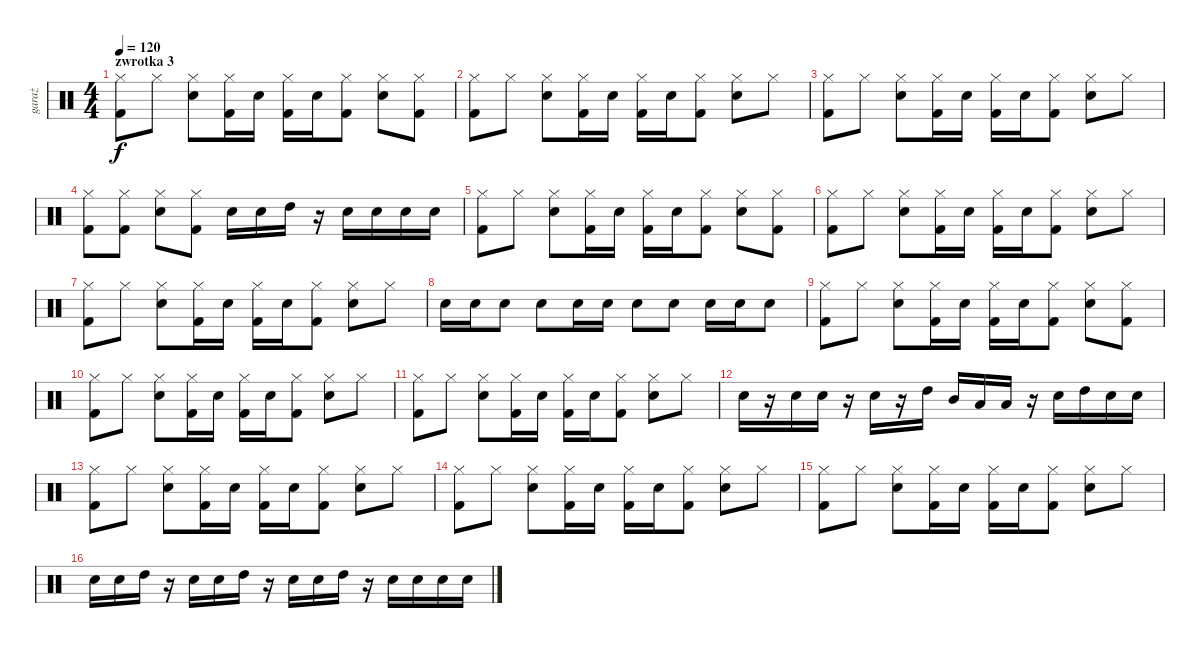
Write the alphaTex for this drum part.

\track ("garaż" "garaż") {instrument percussion}
\staff {score}
\articulation defaults
\ts (4 4)
\section ("" "zwrotka 3")
\tempo 120
\clef neutral
\ks c
("Hi-Hat (closed)" "Kick (hit) 2").8{dy f} "Hi-Hat (closed)".8 ("Hi-Hat (closed)" "Snare (hit) 2").8 ("Hi-Hat (closed)" "Kick (hit) 2").16 "Snare (hit) 2".16 ("Hi-Hat (closed)" "Kick (hit) 2").16 "Snare (hit) 2".16 ("Hi-Hat (closed)" "Kick (hit) 2").8 ("Hi-Hat (closed)" "Snare (hit) 2").8 ("Hi-Hat (closed)" "Kick (hit) 2").8 |
("Hi-Hat (closed)" "Kick (hit) 2").8 "Hi-Hat (closed)".8 ("Hi-Hat (closed)" "Snare (hit) 2").8 ("Hi-Hat (closed)" "Kick (hit) 2").16 "Snare (hit) 2".16 ("Hi-Hat (closed)" "Kick (hit) 2").16 "Snare (hit) 2".16 ("Hi-Hat (closed)" "Kick (hit) 2").8 ("Hi-Hat (closed)" "Snare (hit) 2").8 "Hi-Hat (closed)".8 |
("Hi-Hat (closed)" "Kick (hit) 2").8 "Hi-Hat (closed)".8 ("Hi-Hat (closed)" "Snare (hit) 2").8 ("Hi-Hat (closed)" "Kick (hit) 2").16 "Snare (hit) 2".16 ("Hi-Hat (closed)" "Kick (hit) 2").16 "Snare (hit) 2".16 ("Hi-Hat (closed)" "Kick (hit) 2").8 ("Hi-Hat (closed)" "Snare (hit) 2").8 "Hi-Hat (closed)".8 |
("Hi-Hat (closed)" "Kick (hit) 2").8 ("Hi-Hat (closed)" "Kick (hit) 2").8 ("Hi-Hat (closed)" "Snare (hit) 2").8 ("Hi-Hat (closed)" "Kick (hit) 2").8 "Snare (hit) 2".16 "Snare (hit) 2".16 "High Tom (hit)".16 r.16 "Snare (hit) 2".16 "Snare (hit) 2".16 "Snare (hit) 2".16 "Snare (hit) 2".16 |
("Hi-Hat (closed)" "Kick (hit) 2").8 "Hi-Hat (closed)".8 ("Hi-Hat (closed)" "Snare (hit) 2").8 ("Hi-Hat (closed)" "Kick (hit) 2").16 "Snare (hit) 2".16 ("Hi-Hat (closed)" "Kick (hit) 2").16 "Snare (hit) 2".16 ("Hi-Hat (closed)" "Kick (hit) 2").8 ("Hi-Hat (closed)" "Snare (hit) 2").8 ("Hi-Hat (closed)" "Kick (hit) 2").8 |
("Hi-Hat (closed)" "Kick (hit) 2").8 "Hi-Hat (closed)".8 ("Hi-Hat (closed)" "Snare (hit) 2").8 ("Hi-Hat (closed)" "Kick (hit) 2").16 "Snare (hit) 2".16 ("Hi-Hat (closed)" "Kick (hit) 2").16 "Snare (hit) 2".16 ("Hi-Hat (closed)" "Kick (hit) 2").8 ("Hi-Hat (closed)" "Snare (hit) 2").8 "Hi-Hat (closed)".8 |
("Hi-Hat (closed)" "Kick (hit) 2").8 "Hi-Hat (closed)".8 ("Hi-Hat (closed)" "Snare (hit) 2").8 ("Hi-Hat (closed)" "Kick (hit) 2").16 "Snare (hit) 2".16 ("Hi-Hat (closed)" "Kick (hit) 2").16 "Snare (hit) 2".16 ("Hi-Hat (closed)" "Kick (hit) 2").8 ("Hi-Hat (closed)" "Snare (hit) 2").8 "Hi-Hat (closed)".8 |
"Snare (hit) 2".16 "Snare (hit) 2".16 "Snare (hit) 2".8 "Snare (hit) 2".8 "Snare (hit) 2".16 "Snare (hit) 2".16 "Snare (hit) 2".8 "Snare (hit) 2".8 "Snare (hit) 2".16 "Snare (hit) 2".16 "Snare (hit) 2".8 |
("Hi-Hat (closed)" "Kick (hit) 2").8 "Hi-Hat (closed)".8 ("Hi-Hat (closed)" "Snare (hit) 2").8 ("Hi-Hat (closed)" "Kick (hit) 2").16 "Snare (hit) 2".16 ("Hi-Hat (closed)" "Kick (hit) 2").16 "Snare (hit) 2".16 ("Hi-Hat (closed)" "Kick (hit) 2").8 ("Hi-Hat (closed)" "Snare (hit) 2").8 ("Hi-Hat (closed)" "Kick (hit) 2").8 |
("Hi-Hat (closed)" "Kick (hit) 2").8 "Hi-Hat (closed)".8 ("Hi-Hat (closed)" "Snare (hit) 2").8 ("Hi-Hat (closed)" "Kick (hit) 2").16 "Snare (hit) 2".16 ("Hi-Hat (closed)" "Kick (hit) 2").16 "Snare (hit) 2".16 ("Hi-Hat (closed)" "Kick (hit) 2").8 ("Hi-Hat (closed)" "Snare (hit) 2").8 "Hi-Hat (closed)".8 |
("Hi-Hat (closed)" "Kick (hit) 2").8 "Hi-Hat (closed)".8 ("Hi-Hat (closed)" "Snare (hit) 2").8 ("Hi-Hat (closed)" "Kick (hit) 2").16 "Snare (hit) 2".16 ("Hi-Hat (closed)" "Kick (hit) 2").16 "Snare (hit) 2".16 ("Hi-Hat (closed)" "Kick (hit) 2").8 ("Hi-Hat (closed)" "Snare (hit) 2").8 "Hi-Hat (closed)".8 |
"Snare (hit) 2".16 r.16 "Snare (hit) 2".16 "Snare (hit) 2".16 r.16 "Snare (hit) 2".16 r.16 "High Tom (hit)".16 "Mid Tom (hit)".16 "Low Tom (hit)".16 "Low Floor Tom (hit)".16 r.16 "Snare (hit) 2".16 "High Tom (hit)".16 "Snare (hit) 2".16 "Snare (hit) 2".16 |
("Hi-Hat (closed)" "Kick (hit) 2").8 "Hi-Hat (closed)".8 ("Hi-Hat (closed)" "Snare (hit) 2").8 ("Hi-Hat (closed)" "Kick (hit) 2").16 "Snare (hit) 2".16 ("Hi-Hat (closed)" "Kick (hit) 2").16 "Snare (hit) 2".16 ("Hi-Hat (closed)" "Kick (hit) 2").8 ("Hi-Hat (closed)" "Snare (hit) 2").8 "Hi-Hat (closed)".8 |
("Hi-Hat (closed)" "Kick (hit) 2").8 "Hi-Hat (closed)".8 ("Hi-Hat (closed)" "Snare (hit) 2").8 ("Hi-Hat (closed)" "Kick (hit) 2").16 "Snare (hit) 2".16 ("Hi-Hat (closed)" "Kick (hit) 2").16 "Snare (hit) 2".16 ("Hi-Hat (closed)" "Kick (hit) 2").8 ("Hi-Hat (closed)" "Snare (hit) 2").8 "Hi-Hat (closed)".8 |
("Hi-Hat (closed)" "Kick (hit) 2").8 "Hi-Hat (closed)".8 ("Hi-Hat (closed)" "Snare (hit) 2").8 ("Hi-Hat (closed)" "Kick (hit) 2").16 "Snare (hit) 2".16 ("Hi-Hat (closed)" "Kick (hit) 2").16 "Snare (hit) 2".16 ("Hi-Hat (closed)" "Kick (hit) 2").8 ("Hi-Hat (closed)" "Snare (hit) 2").8 "Hi-Hat (closed)".8 |
"Snare (hit) 2".16 "Snare (hit) 2".16 "High Tom (hit)".16 r.16 "Snare (hit) 2".16 "Snare (hit) 2".16 "High Tom (hit)".16 r.16 "Snare (hit) 2".16 "Snare (hit) 2".16 "High Tom (hit)".16 r.16 "Snare (hit) 2".16 "Snare (hit) 2".16 "Snare (hit) 2".16 "Snare (hit) 2".16
